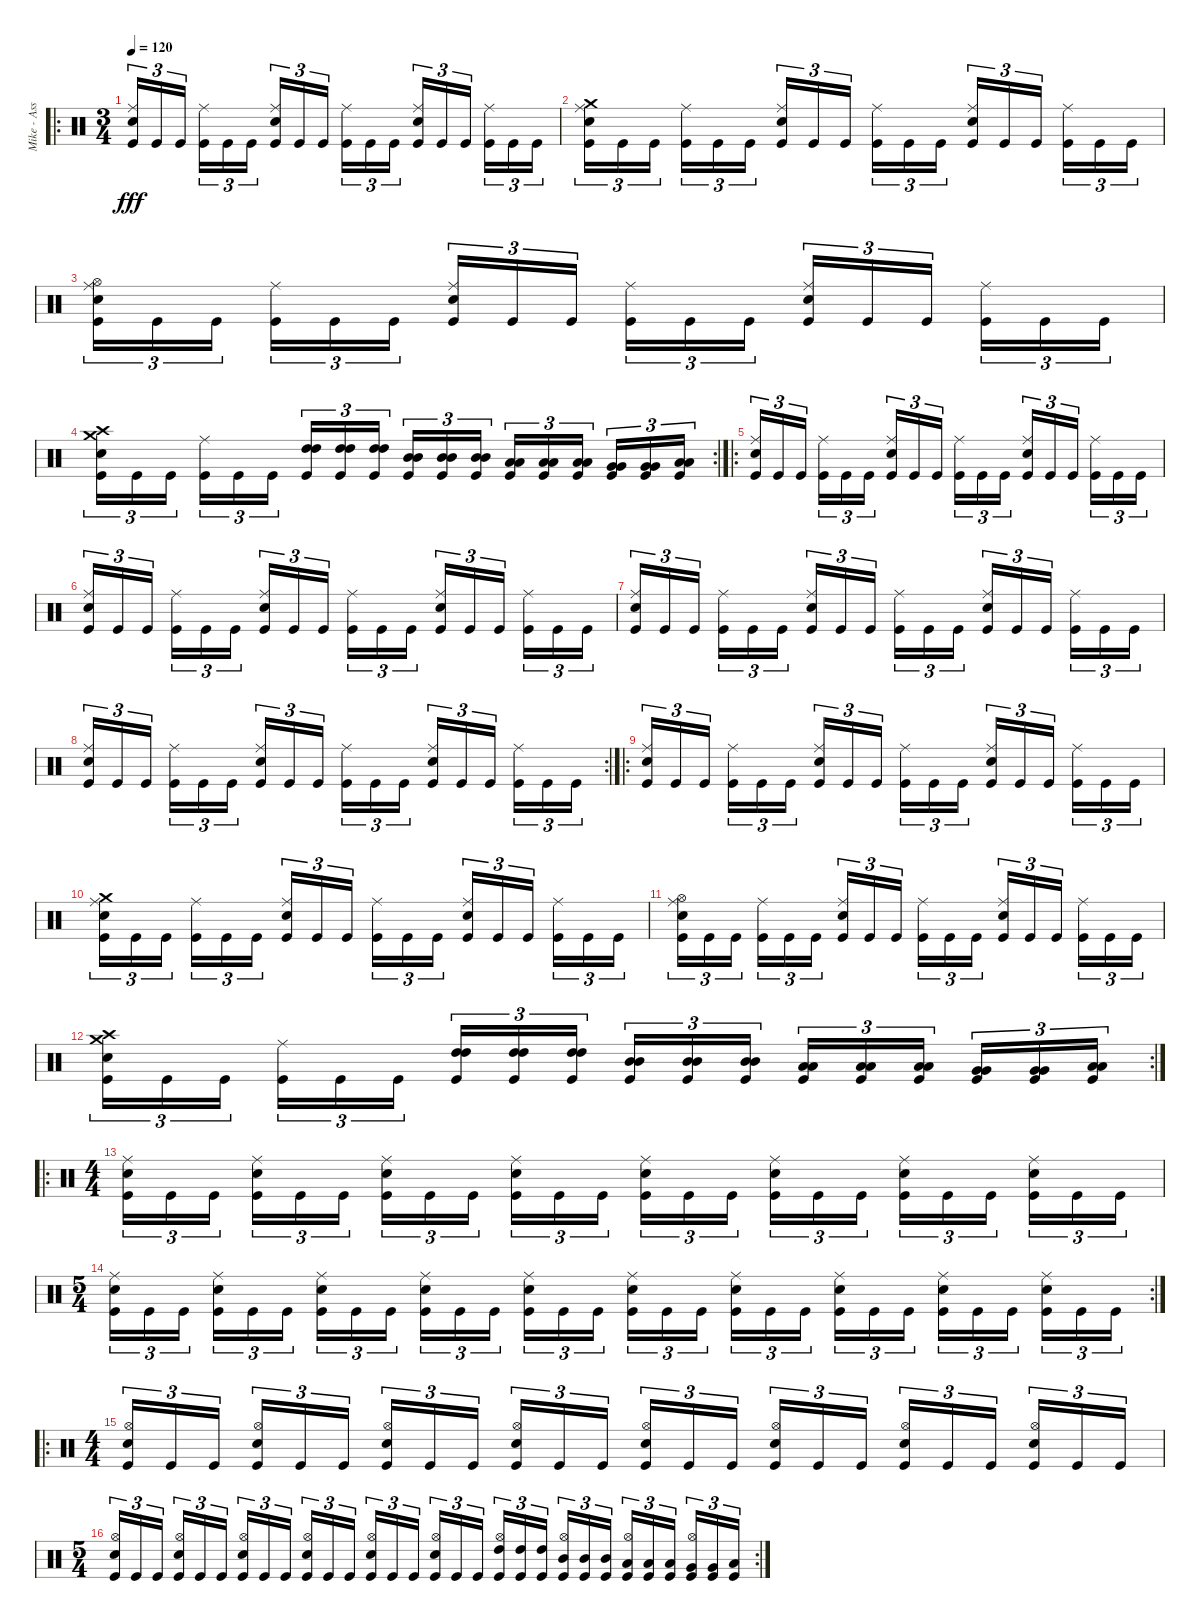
\track ("Mike - Assualt And Battery" "Mike - Ass") {instrument percussion}
\staff {score}
\articulation defaults
\ro
\ts (3 4)
\tempo 120
\clef neutral
\ks c
("Snare (hit) 2" "Ride (middle)" "Kick (hit)").16{tu (3 2) dy fff} "Kick (hit)".16{tu (3 2)} "Kick (hit)".16{tu (3 2)} ("Ride (middle)" "Kick (hit)").16{tu (3 2)} "Kick (hit)".16{tu (3 2)} "Kick (hit)".16{tu (3 2)} ("Snare (hit) 2" "Ride (middle)" "Kick (hit)").16{tu (3 2)} "Kick (hit)".16{tu (3 2)} "Kick (hit)".16{tu (3 2)} ("Ride (middle)" "Kick (hit)").16{tu (3 2)} "Kick (hit)".16{tu (3 2)} "Kick (hit)".16{tu (3 2)} ("Snare (hit) 2" "Ride (middle)" "Kick (hit)").16{tu (3 2)} "Kick (hit)".16{tu (3 2)} "Kick (hit)".16{tu (3 2)} ("Ride (middle)" "Kick (hit)").16{tu (3 2)} "Kick (hit)".16{tu (3 2)} "Kick (hit)".16{tu (3 2)} |
("Crash medium (hit)" "Snare (hit) 2" "Ride (middle)" "Kick (hit)").16{tu (3 2)} "Kick (hit)".16{tu (3 2)} "Kick (hit)".16{tu (3 2)} ("Ride (middle)" "Kick (hit)").16{tu (3 2)} "Kick (hit)".16{tu (3 2)} "Kick (hit)".16{tu (3 2)} ("Snare (hit) 2" "Ride (middle)" "Kick (hit)").16{tu (3 2)} "Kick (hit)".16{tu (3 2)} "Kick (hit)".16{tu (3 2)} ("Ride (middle)" "Kick (hit)").16{tu (3 2)} "Kick (hit)".16{tu (3 2)} "Kick (hit)".16{tu (3 2)} ("Snare (hit) 2" "Ride (middle)" "Kick (hit)").16{tu (3 2)} "Kick (hit)".16{tu (3 2)} "Kick (hit)".16{tu (3 2)} ("Ride (middle)" "Kick (hit)").16{tu (3 2)} "Kick (hit)".16{tu (3 2)} "Kick (hit)".16{tu (3 2)} |
("Hi-Hat (open)" "Snare (hit) 2" "Ride (middle)" "Kick (hit)").16{tu (3 2)} "Kick (hit)".16{tu (3 2)} "Kick (hit)".16{tu (3 2)} ("Ride (middle)" "Kick (hit)").16{tu (3 2)} "Kick (hit)".16{tu (3 2)} "Kick (hit)".16{tu (3 2)} ("Snare (hit) 2" "Ride (middle)" "Kick (hit)").16{tu (3 2)} "Kick (hit)".16{tu (3 2)} "Kick (hit)".16{tu (3 2)} ("Ride (middle)" "Kick (hit)").16{tu (3 2)} "Kick (hit)".16{tu (3 2)} "Kick (hit)".16{tu (3 2)} ("Snare (hit) 2" "Ride (middle)" "Kick (hit)").16{tu (3 2)} "Kick (hit)".16{tu (3 2)} "Kick (hit)".16{tu (3 2)} ("Ride (middle)" "Kick (hit)").16{tu (3 2)} "Kick (hit)".16{tu (3 2)} "Kick (hit)".16{tu (3 2)} |
\rc 2
("Snare (hit) 2" "Crash medium (hit)" "Crash high (hit)" "Kick (hit)").16{tu (3 2)} "Kick (hit)".16{tu (3 2)} "Kick (hit)".16{tu (3 2)} ("Ride (middle)" "Kick (hit)").16{tu (3 2)} "Kick (hit)".16{tu (3 2)} "Kick (hit)".16{tu (3 2)} ("High Tom (hit)" "High Tom (hit)" "Kick (hit)").16{tu (3 2)} ("High Tom (hit)" "High Tom (hit)" "Kick (hit)").16{tu (3 2)} ("High Tom (hit)" "High Tom (hit)" "Kick (hit)").16{tu (3 2)} ("Mid Tom (hit)" "Mid Tom (hit)" "Kick (hit)").16{tu (3 2)} ("Mid Tom (hit)" "Mid Tom (hit)" "Kick (hit)").16{tu (3 2)} ("Mid Tom (hit)" "Mid Tom (hit)" "Kick (hit)").16{tu (3 2)} ("Low Tom (hit)" "Low Tom (hit)" "Kick (hit)").16{tu (3 2)} ("Low Tom (hit)" "Low Tom (hit)" "Kick (hit)").16{tu (3 2)} ("Low Tom (hit)" "Low Tom (hit)" "Kick (hit)").16{tu (3 2)} ("Very Low Tom (hit)" "Very Low Tom (hit)" "Kick (hit)").16{tu (3 2)} ("Very Low Tom (hit)" "Very Low Tom (hit)" "Kick (hit)").16{tu (3 2)} ("Low Floor Tom (hit)" "Low Floor Tom (hit)" "Kick (hit)").16{tu (3 2)} |
\ro
("Snare (hit) 2" "Ride (middle)" "Kick (hit)").16{tu (3 2)} "Kick (hit)".16{tu (3 2)} "Kick (hit)".16{tu (3 2)} ("Ride (middle)" "Kick (hit)").16{tu (3 2)} "Kick (hit)".16{tu (3 2)} "Kick (hit)".16{tu (3 2)} ("Snare (hit) 2" "Ride (middle)" "Kick (hit)").16{tu (3 2)} "Kick (hit)".16{tu (3 2)} "Kick (hit)".16{tu (3 2)} ("Ride (middle)" "Kick (hit)").16{tu (3 2)} "Kick (hit)".16{tu (3 2)} "Kick (hit)".16{tu (3 2)} ("Snare (hit) 2" "Ride (middle)" "Kick (hit)").16{tu (3 2)} "Kick (hit)".16{tu (3 2)} "Kick (hit)".16{tu (3 2)} ("Ride (middle)" "Kick (hit)").16{tu (3 2)} "Kick (hit)".16{tu (3 2)} "Kick (hit)".16{tu (3 2)} |
("Snare (hit) 2" "Ride (middle)" "Kick (hit)").16{tu (3 2)} "Kick (hit)".16{tu (3 2)} "Kick (hit)".16{tu (3 2)} ("Ride (middle)" "Kick (hit)").16{tu (3 2)} "Kick (hit)".16{tu (3 2)} "Kick (hit)".16{tu (3 2)} ("Snare (hit) 2" "Ride (middle)" "Kick (hit)").16{tu (3 2)} "Kick (hit)".16{tu (3 2)} "Kick (hit)".16{tu (3 2)} ("Ride (middle)" "Kick (hit)").16{tu (3 2)} "Kick (hit)".16{tu (3 2)} "Kick (hit)".16{tu (3 2)} ("Snare (hit) 2" "Ride (middle)" "Kick (hit)").16{tu (3 2)} "Kick (hit)".16{tu (3 2)} "Kick (hit)".16{tu (3 2)} ("Ride (middle)" "Kick (hit)").16{tu (3 2)} "Kick (hit)".16{tu (3 2)} "Kick (hit)".16{tu (3 2)} |
("Snare (hit) 2" "Ride (middle)" "Kick (hit)").16{tu (3 2)} "Kick (hit)".16{tu (3 2)} "Kick (hit)".16{tu (3 2)} ("Ride (middle)" "Kick (hit)").16{tu (3 2)} "Kick (hit)".16{tu (3 2)} "Kick (hit)".16{tu (3 2)} ("Snare (hit) 2" "Ride (middle)" "Kick (hit)").16{tu (3 2)} "Kick (hit)".16{tu (3 2)} "Kick (hit)".16{tu (3 2)} ("Ride (middle)" "Kick (hit)").16{tu (3 2)} "Kick (hit)".16{tu (3 2)} "Kick (hit)".16{tu (3 2)} ("Snare (hit) 2" "Ride (middle)" "Kick (hit)").16{tu (3 2)} "Kick (hit)".16{tu (3 2)} "Kick (hit)".16{tu (3 2)} ("Ride (middle)" "Kick (hit)").16{tu (3 2)} "Kick (hit)".16{tu (3 2)} "Kick (hit)".16{tu (3 2)} |
\rc 2
("Snare (hit) 2" "Ride (middle)" "Kick (hit)").16{tu (3 2)} "Kick (hit)".16{tu (3 2)} "Kick (hit)".16{tu (3 2)} ("Ride (middle)" "Kick (hit)").16{tu (3 2)} "Kick (hit)".16{tu (3 2)} "Kick (hit)".16{tu (3 2)} ("Snare (hit) 2" "Ride (middle)" "Kick (hit)").16{tu (3 2)} "Kick (hit)".16{tu (3 2)} "Kick (hit)".16{tu (3 2)} ("Ride (middle)" "Kick (hit)").16{tu (3 2)} "Kick (hit)".16{tu (3 2)} "Kick (hit)".16{tu (3 2)} ("Snare (hit) 2" "Ride (middle)" "Kick (hit)").16{tu (3 2)} "Kick (hit)".16{tu (3 2)} "Kick (hit)".16{tu (3 2)} ("Ride (middle)" "Kick (hit)").16{tu (3 2)} "Kick (hit)".16{tu (3 2)} "Kick (hit)".16{tu (3 2)} |
\ro
("Snare (hit) 2" "Ride (middle)" "Kick (hit)").16{tu (3 2)} "Kick (hit)".16{tu (3 2)} "Kick (hit)".16{tu (3 2)} ("Ride (middle)" "Kick (hit)").16{tu (3 2)} "Kick (hit)".16{tu (3 2)} "Kick (hit)".16{tu (3 2)} ("Snare (hit) 2" "Ride (middle)" "Kick (hit)").16{tu (3 2)} "Kick (hit)".16{tu (3 2)} "Kick (hit)".16{tu (3 2)} ("Ride (middle)" "Kick (hit)").16{tu (3 2)} "Kick (hit)".16{tu (3 2)} "Kick (hit)".16{tu (3 2)} ("Snare (hit) 2" "Ride (middle)" "Kick (hit)").16{tu (3 2)} "Kick (hit)".16{tu (3 2)} "Kick (hit)".16{tu (3 2)} ("Ride (middle)" "Kick (hit)").16{tu (3 2)} "Kick (hit)".16{tu (3 2)} "Kick (hit)".16{tu (3 2)} |
("Crash medium (hit)" "Snare (hit) 2" "Ride (middle)" "Kick (hit)").16{tu (3 2)} "Kick (hit)".16{tu (3 2)} "Kick (hit)".16{tu (3 2)} ("Ride (middle)" "Kick (hit)").16{tu (3 2)} "Kick (hit)".16{tu (3 2)} "Kick (hit)".16{tu (3 2)} ("Snare (hit) 2" "Ride (middle)" "Kick (hit)").16{tu (3 2)} "Kick (hit)".16{tu (3 2)} "Kick (hit)".16{tu (3 2)} ("Ride (middle)" "Kick (hit)").16{tu (3 2)} "Kick (hit)".16{tu (3 2)} "Kick (hit)".16{tu (3 2)} ("Snare (hit) 2" "Ride (middle)" "Kick (hit)").16{tu (3 2)} "Kick (hit)".16{tu (3 2)} "Kick (hit)".16{tu (3 2)} ("Ride (middle)" "Kick (hit)").16{tu (3 2)} "Kick (hit)".16{tu (3 2)} "Kick (hit)".16{tu (3 2)} |
("Hi-Hat (open)" "Snare (hit) 2" "Ride (middle)" "Kick (hit)").16{tu (3 2)} "Kick (hit)".16{tu (3 2)} "Kick (hit)".16{tu (3 2)} ("Ride (middle)" "Kick (hit)").16{tu (3 2)} "Kick (hit)".16{tu (3 2)} "Kick (hit)".16{tu (3 2)} ("Snare (hit) 2" "Ride (middle)" "Kick (hit)").16{tu (3 2)} "Kick (hit)".16{tu (3 2)} "Kick (hit)".16{tu (3 2)} ("Ride (middle)" "Kick (hit)").16{tu (3 2)} "Kick (hit)".16{tu (3 2)} "Kick (hit)".16{tu (3 2)} ("Snare (hit) 2" "Ride (middle)" "Kick (hit)").16{tu (3 2)} "Kick (hit)".16{tu (3 2)} "Kick (hit)".16{tu (3 2)} ("Ride (middle)" "Kick (hit)").16{tu (3 2)} "Kick (hit)".16{tu (3 2)} "Kick (hit)".16{tu (3 2)} |
\rc 2
("Snare (hit) 2" "Crash medium (hit)" "Crash high (hit)" "Kick (hit)").16{tu (3 2)} "Kick (hit)".16{tu (3 2)} "Kick (hit)".16{tu (3 2)} ("Ride (middle)" "Kick (hit)").16{tu (3 2)} "Kick (hit)".16{tu (3 2)} "Kick (hit)".16{tu (3 2)} ("High Tom (hit)" "High Tom (hit)" "Kick (hit)").16{tu (3 2)} ("High Tom (hit)" "High Tom (hit)" "Kick (hit)").16{tu (3 2)} ("High Tom (hit)" "High Tom (hit)" "Kick (hit)").16{tu (3 2)} ("Mid Tom (hit)" "Mid Tom (hit)" "Kick (hit)").16{tu (3 2)} ("Mid Tom (hit)" "Mid Tom (hit)" "Kick (hit)").16{tu (3 2)} ("Mid Tom (hit)" "Mid Tom (hit)" "Kick (hit)").16{tu (3 2)} ("Low Tom (hit)" "Low Tom (hit)" "Kick (hit)").16{tu (3 2)} ("Low Tom (hit)" "Low Tom (hit)" "Kick (hit)").16{tu (3 2)} ("Low Tom (hit)" "Low Tom (hit)" "Kick (hit)").16{tu (3 2)} ("Very Low Tom (hit)" "Very Low Tom (hit)" "Kick (hit)").16{tu (3 2)} ("Very Low Tom (hit)" "Very Low Tom (hit)" "Kick (hit)").16{tu (3 2)} ("Low Floor Tom (hit)" "Low Floor Tom (hit)" "Kick (hit)").16{tu (3 2)} |
\ro
\ts (4 4)
("Electric Snare (hit)" "Ride (middle)" "Kick (hit)").16{tu (3 2)} "Kick (hit)".16{tu (3 2)} "Kick (hit)".16{tu (3 2)} ("Electric Snare (hit)" "Ride (middle)" "Kick (hit)").16{tu (3 2)} "Kick (hit)".16{tu (3 2)} "Kick (hit)".16{tu (3 2)} ("Electric Snare (hit)" "Ride (middle)" "Kick (hit)").16{tu (3 2)} "Kick (hit)".16{tu (3 2)} "Kick (hit)".16{tu (3 2)} ("Electric Snare (hit)" "Ride (middle)" "Kick (hit)").16{tu (3 2)} "Kick (hit)".16{tu (3 2)} "Kick (hit)".16{tu (3 2)} ("Electric Snare (hit)" "Ride (middle)" "Kick (hit)").16{tu (3 2)} "Kick (hit)".16{tu (3 2)} "Kick (hit)".16{tu (3 2)} ("Electric Snare (hit)" "Ride (middle)" "Kick (hit)").16{tu (3 2)} "Kick (hit)".16{tu (3 2)} "Kick (hit)".16{tu (3 2)} ("Electric Snare (hit)" "Ride (middle)" "Kick (hit)").16{tu (3 2)} "Kick (hit)".16{tu (3 2)} "Kick (hit)".16{tu (3 2)} ("Electric Snare (hit)" "Ride (middle)" "Kick (hit)").16{tu (3 2)} "Kick (hit)".16{tu (3 2)} "Kick (hit)".16{tu (3 2)} |
\rc 2
\ts (5 4)
("Electric Snare (hit)" "Ride (middle)" "Kick (hit)").16{tu (3 2)} "Kick (hit)".16{tu (3 2)} "Kick (hit)".16{tu (3 2)} ("Electric Snare (hit)" "Ride (middle)" "Kick (hit)").16{tu (3 2)} "Kick (hit)".16{tu (3 2)} "Kick (hit)".16{tu (3 2)} ("Electric Snare (hit)" "Ride (middle)" "Kick (hit)").16{tu (3 2)} "Kick (hit)".16{tu (3 2)} "Kick (hit)".16{tu (3 2)} ("Electric Snare (hit)" "Ride (middle)" "Kick (hit)").16{tu (3 2)} "Kick (hit)".16{tu (3 2)} "Kick (hit)".16{tu (3 2)} ("Electric Snare (hit)" "Ride (middle)" "Kick (hit)").16{tu (3 2)} "Kick (hit)".16{tu (3 2)} "Kick (hit)".16{tu (3 2)} ("Electric Snare (hit)" "Ride (middle)" "Kick (hit)").16{tu (3 2)} "Kick (hit)".16{tu (3 2)} "Kick (hit)".16{tu (3 2)} ("Electric Snare (hit)" "Ride (middle)" "Kick (hit)").16{tu (3 2)} "Kick (hit)".16{tu (3 2)} "Kick (hit)".16{tu (3 2)} ("Electric Snare (hit)" "Ride (middle)" "Kick (hit)").16{tu (3 2)} "Kick (hit)".16{tu (3 2)} "Kick (hit)".16{tu (3 2)} ("Electric Snare (hit)" "Ride (middle)" "Kick (hit)").16{tu (3 2)} "Kick (hit)".16{tu (3 2)} "Kick (hit)".16{tu (3 2)} ("Electric Snare (hit)" "Ride (middle)" "Kick (hit)").16{tu (3 2)} "Kick (hit)".16{tu (3 2)} "Kick (hit)".16{tu (3 2)} |
\ro
\ts (4 4)
("Electric Snare (hit)" "Hi-Hat (open)" "Kick (hit)").16{tu (3 2)} "Kick (hit)".16{tu (3 2)} "Kick (hit)".16{tu (3 2)} ("Electric Snare (hit)" "Hi-Hat (open)" "Kick (hit)").16{tu (3 2)} "Kick (hit)".16{tu (3 2)} "Kick (hit)".16{tu (3 2)} ("Electric Snare (hit)" "Hi-Hat (open)" "Kick (hit)").16{tu (3 2)} "Kick (hit)".16{tu (3 2)} "Kick (hit)".16{tu (3 2)} ("Electric Snare (hit)" "Hi-Hat (open)" "Kick (hit)").16{tu (3 2)} "Kick (hit)".16{tu (3 2)} "Kick (hit)".16{tu (3 2)} ("Electric Snare (hit)" "Hi-Hat (open)" "Kick (hit)").16{tu (3 2)} "Kick (hit)".16{tu (3 2)} "Kick (hit)".16{tu (3 2)} ("Electric Snare (hit)" "Hi-Hat (open)" "Kick (hit)").16{tu (3 2)} "Kick (hit)".16{tu (3 2)} "Kick (hit)".16{tu (3 2)} ("Electric Snare (hit)" "Hi-Hat (open)" "Kick (hit)").16{tu (3 2)} "Kick (hit)".16{tu (3 2)} "Kick (hit)".16{tu (3 2)} ("Electric Snare (hit)" "Hi-Hat (open)" "Kick (hit)").16{tu (3 2)} "Kick (hit)".16{tu (3 2)} "Kick (hit)".16{tu (3 2)} |
\rc 2
\ts (5 4)
("Electric Snare (hit)" "Hi-Hat (open)" "Kick (hit)").16{tu (3 2)} "Kick (hit)".16{tu (3 2)} "Kick (hit)".16{tu (3 2)} ("Electric Snare (hit)" "Hi-Hat (open)" "Kick (hit)").16{tu (3 2)} "Kick (hit)".16{tu (3 2)} "Kick (hit)".16{tu (3 2)} ("Electric Snare (hit)" "Hi-Hat (open)" "Kick (hit)").16{tu (3 2)} "Kick (hit)".16{tu (3 2)} "Kick (hit)".16{tu (3 2)} ("Electric Snare (hit)" "Hi-Hat (open)" "Kick (hit)").16{tu (3 2)} "Kick (hit)".16{tu (3 2)} "Kick (hit)".16{tu (3 2)} ("Electric Snare (hit)" "Hi-Hat (open)" "Kick (hit)").16{tu (3 2)} "Kick (hit)".16{tu (3 2)} "Kick (hit)".16{tu (3 2)} ("Electric Snare (hit)" "Hi-Hat (open)" "Kick (hit)").16{tu (3 2)} "Kick (hit)".16{tu (3 2)} "Kick (hit)".16{tu (3 2)} ("High Tom (hit)" "Hi-Hat (open)" "Kick (hit)").16{tu (3 2)} ("High Tom (hit)" "Kick (hit)").16{tu (3 2)} ("High Tom (hit)" "Kick (hit)").16{tu (3 2)} ("Mid Tom (hit)" "Hi-Hat (open)" "Kick (hit)").16{tu (3 2)} ("Mid Tom (hit)" "Kick (hit)").16{tu (3 2)} ("Mid Tom (hit)" "Kick (hit)").16{tu (3 2)} ("Low Tom (hit)" "Hi-Hat (open)" "Kick (hit)").16{tu (3 2)} ("Low Tom (hit)" "Kick (hit)").16{tu (3 2)} ("Low Tom (hit)" "Kick (hit)").16{tu (3 2)} ("Very Low Tom (hit)" "Hi-Hat (open)" "Kick (hit)").16{tu (3 2)} ("Very Low Tom (hit)" "Kick (hit)").16{tu (3 2)} ("Low Floor Tom (hit)" "Kick (hit)").16{tu (3 2)}
